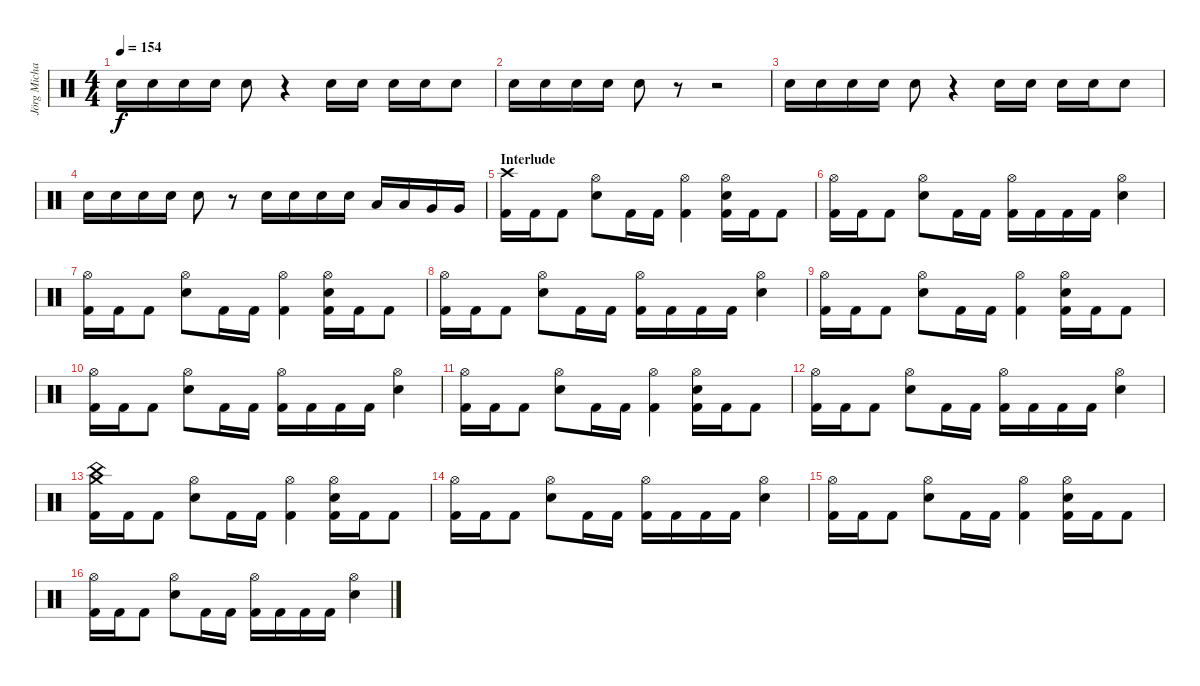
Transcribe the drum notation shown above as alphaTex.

\track ("Jörg Michael - Drums" "Jörg Micha") {instrument percussion}
\staff {score}
\articulation defaults
\ts (4 4)
\tempo 154
\clef neutral
\ks c "Electric Snare (hit)".16{dy f} "Electric Snare (hit)".16 "Electric Snare (hit)".16 "Electric Snare (hit)".16 "Electric Snare (hit)".8
r.4 "Electric Snare (hit)".16 "Electric Snare (hit)".16 "Electric Snare (hit)".16 "Electric Snare (hit)".16 "Electric Snare (hit)".8 |
"Electric Snare (hit)".16 "Electric Snare (hit)".16 "Electric Snare (hit)".16 "Electric Snare (hit)".16 "Electric Snare (hit)".8 r.8 r.2 |
"Electric Snare (hit)".16 "Electric Snare (hit)".16 "Electric Snare (hit)".16 "Electric Snare (hit)".16 "Electric Snare (hit)".8 r.4 "Electric Snare (hit)".16 "Electric Snare (hit)".16 "Electric Snare (hit)".16 "Electric Snare (hit)".16 "Electric Snare (hit)".8 |
"Electric Snare (hit)".16 "Electric Snare (hit)".16 "Electric Snare (hit)".16 "Electric Snare (hit)".16 "Electric Snare (hit)".8 r.8 "Electric Snare (hit)".16 "Electric Snare (hit)".16 "Electric Snare (hit)".16 "Electric Snare (hit)".16 "Low Tom (hit)".16 "Low Tom (hit)".16 "Very Low Tom (hit)".16 "Very Low Tom (hit)".16 |
\section ("" "Interlude")
("Crash high (hit)" "Kick (hit) 2").16 "Kick (hit) 2".16 "Kick (hit) 2".8 ("Hi-Hat (open)" "Electric Snare (hit)").8 "Kick (hit) 2".16 "Kick (hit) 2".16 ("Hi-Hat (open)" "Kick (hit) 2").4 ("Hi-Hat (open)" "Electric Snare (hit)" "Kick (hit) 2").16 "Kick (hit) 2".16 "Kick (hit) 2".8 |
("Hi-Hat (open)" "Kick (hit) 2").16 "Kick (hit) 2".16 "Kick (hit) 2".8 ("Hi-Hat (open)" "Electric Snare (hit)").8 "Kick (hit) 2".16 "Kick (hit) 2".16 ("Hi-Hat (open)" "Kick (hit) 2").16 "Kick (hit) 2".16 "Kick (hit) 2".16 "Kick (hit) 2".16 ("Hi-Hat (open)" "Electric Snare (hit)").4 |
("Hi-Hat (open)" "Kick (hit) 2").16 "Kick (hit) 2".16 "Kick (hit) 2".8 ("Hi-Hat (open)" "Electric Snare (hit)").8 "Kick (hit) 2".16 "Kick (hit) 2".16 ("Hi-Hat (open)" "Kick (hit) 2").4 ("Hi-Hat (open)" "Electric Snare (hit)" "Kick (hit) 2").16 "Kick (hit) 2".16 "Kick (hit) 2".8 |
("Hi-Hat (open)" "Kick (hit) 2").16 "Kick (hit) 2".16 "Kick (hit) 2".8 ("Hi-Hat (open)" "Electric Snare (hit)").8 "Kick (hit) 2".16 "Kick (hit) 2".16 ("Hi-Hat (open)" "Kick (hit) 2").16 "Kick (hit) 2".16 "Kick (hit) 2".16 "Kick (hit) 2".16 ("Hi-Hat (open)" "Electric Snare (hit)").4 |
("Hi-Hat (open)" "Kick (hit) 2").16 "Kick (hit) 2".16 "Kick (hit) 2".8 ("Hi-Hat (open)" "Electric Snare (hit)").8 "Kick (hit) 2".16 "Kick (hit) 2".16 ("Hi-Hat (open)" "Kick (hit) 2").4 ("Hi-Hat (open)" "Electric Snare (hit)" "Kick (hit) 2").16 "Kick (hit) 2".16 "Kick (hit) 2".8 |
("Hi-Hat (open)" "Kick (hit) 2").16 "Kick (hit) 2".16 "Kick (hit) 2".8 ("Hi-Hat (open)" "Electric Snare (hit)").8 "Kick (hit) 2".16 "Kick (hit) 2".16 ("Hi-Hat (open)" "Kick (hit) 2").16 "Kick (hit) 2".16 "Kick (hit) 2".16 "Kick (hit) 2".16 ("Hi-Hat (open)" "Electric Snare (hit)").4 |
("Hi-Hat (open)" "Kick (hit) 2").16 "Kick (hit) 2".16 "Kick (hit) 2".8 ("Hi-Hat (open)" "Electric Snare (hit)").8 "Kick (hit) 2".16 "Kick (hit) 2".16 ("Hi-Hat (open)" "Kick (hit) 2").4 ("Hi-Hat (open)" "Electric Snare (hit)" "Kick (hit) 2").16 "Kick (hit) 2".16 "Kick (hit) 2".8 |
("Hi-Hat (open)" "Kick (hit) 2").16 "Kick (hit) 2".16 "Kick (hit) 2".8 ("Hi-Hat (open)" "Electric Snare (hit)").8 "Kick (hit) 2".16 "Kick (hit) 2".16 ("Hi-Hat (open)" "Kick (hit) 2").16 "Kick (hit) 2".16 "Kick (hit) 2".16 "Kick (hit) 2".16 ("Hi-Hat (open)" "Electric Snare (hit)").4 |
("Crash medium (hit)" "China (hit)" "Kick (hit) 2").16 "Kick (hit) 2".16 "Kick (hit) 2".8 ("Hi-Hat (open)" "Electric Snare (hit)").8 "Kick (hit) 2".16 "Kick (hit) 2".16 ("Hi-Hat (open)" "Kick (hit) 2").4 ("Hi-Hat (open)" "Electric Snare (hit)" "Kick (hit) 2").16 "Kick (hit) 2".16 "Kick (hit) 2".8 |
("Hi-Hat (open)" "Kick (hit) 2").16 "Kick (hit) 2".16 "Kick (hit) 2".8 ("Hi-Hat (open)" "Electric Snare (hit)").8 "Kick (hit) 2".16 "Kick (hit) 2".16 ("Hi-Hat (open)" "Kick (hit) 2").16 "Kick (hit) 2".16 "Kick (hit) 2".16 "Kick (hit) 2".16 ("Hi-Hat (open)" "Electric Snare (hit)").4 |
("Hi-Hat (open)" "Kick (hit) 2").16 "Kick (hit) 2".16 "Kick (hit) 2".8 ("Hi-Hat (open)" "Electric Snare (hit)").8 "Kick (hit) 2".16 "Kick (hit) 2".16 ("Hi-Hat (open)" "Kick (hit) 2").4 ("Hi-Hat (open)" "Electric Snare (hit)" "Kick (hit) 2").16 "Kick (hit) 2".16 "Kick (hit) 2".8 |
("Hi-Hat (open)" "Kick (hit) 2").16 "Kick (hit) 2".16 "Kick (hit) 2".8 ("Hi-Hat (open)" "Electric Snare (hit)").8 "Kick (hit) 2".16 "Kick (hit) 2".16 ("Hi-Hat (open)" "Kick (hit) 2").16 "Kick (hit) 2".16 "Kick (hit) 2".16 "Kick (hit) 2".16 ("Hi-Hat (open)" "Electric Snare (hit)").4
